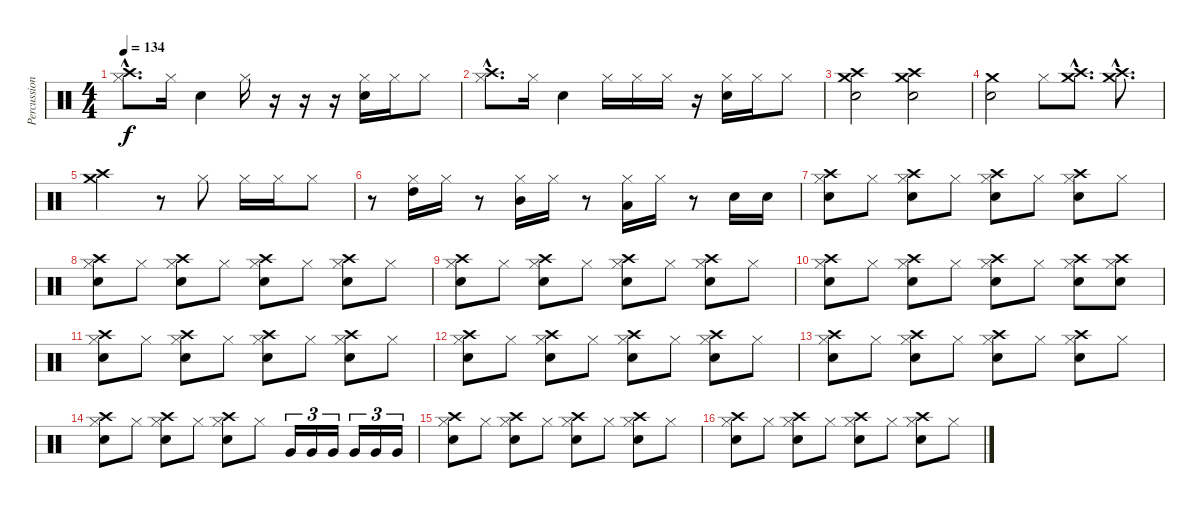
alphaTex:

\track ("Percussions" "Percussion") {instrument percussion}
\staff {score}
\articulation defaults
\ts (4 4)
\tempo 134
\clef neutral
\ks c
("Crash high (hit)"{hac} "Hi-Hat (closed)"{hac}).8{d dy f} "Hi-Hat (closed)".16 "Electric Snare (hit)".4 "Hi-Hat (closed)".16 r.16 r.16 r.16 ("Hi-Hat (closed)" "Electric Snare (hit)").16 "Hi-Hat (closed)".16 "Hi-Hat (closed)".8 |
("Crash high (hit)"{hac} "Hi-Hat (closed)"{hac}).8{d} "Hi-Hat (closed)".16 "Electric Snare (hit)".4 "Hi-Hat (closed)".16 "Hi-Hat (closed)".16 "Hi-Hat (closed)".16 r.16 ("Hi-Hat (closed)" "Electric Snare (hit)").16 "Hi-Hat (closed)".16 "Hi-Hat (closed)".8 |
("Electric Snare (hit)" "Crash medium (hit)" "Crash high (hit)").2 ("Electric Snare (hit)" "Crash medium (hit)" "Crash high (hit)").2 |
("Electric Snare (hit)" "Crash medium (hit)").2 "Hi-Hat (closed)".8 ("Crash high (hit)"{hac} "Crash medium (hit)"{hac}).8{d} ("Crash high (hit)"{hac} "Crash medium (hit)"{hac}).8{d} |
("Crash high (hit)" "Crash medium (hit)").2 r.8 "Hi-Hat (closed)".8 "Hi-Hat (closed)".16 "Hi-Hat (closed)".16 "Hi-Hat (closed)".8 |
r.8 ("High Tom (hit)" "Hi-Hat (closed)").16 "Hi-Hat (closed)".16 r.8 ("Mid Tom (hit)" "Hi-Hat (closed)").16 "Hi-Hat (closed)".16 r.8 ("Low Tom (hit)" "Hi-Hat (closed)").16 "Hi-Hat (closed)".16 r.8 "Snare (hit) 2".16 "Snare (hit) 2".16 |
("Snare (hit) 2" "Hi-Hat (closed)" "Crash high (hit)").8 "Hi-Hat (closed)".8 ("Snare (hit) 2" "Hi-Hat (closed)" "Crash high (hit)").8 "Hi-Hat (closed)".8 ("Snare (hit) 2" "Hi-Hat (closed)" "Crash high (hit)").8 "Hi-Hat (closed)".8 ("Snare (hit) 2" "Hi-Hat (closed)" "Crash high (hit)").8 "Hi-Hat (closed)".8 |
("Snare (hit) 2" "Hi-Hat (closed)" "Crash high (hit)").8 "Hi-Hat (closed)".8 ("Snare (hit) 2" "Hi-Hat (closed)" "Crash high (hit)").8 "Hi-Hat (closed)".8 ("Snare (hit) 2" "Hi-Hat (closed)" "Crash high (hit)").8 "Hi-Hat (closed)".8 ("Snare (hit) 2" "Hi-Hat (closed)" "Crash high (hit)").8 "Hi-Hat (closed)".8 |
("Snare (hit) 2" "Hi-Hat (closed)" "Crash high (hit)").8 "Hi-Hat (closed)".8 ("Snare (hit) 2" "Hi-Hat (closed)" "Crash high (hit)").8 "Hi-Hat (closed)".8 ("Snare (hit) 2" "Hi-Hat (closed)" "Crash high (hit)").8 "Hi-Hat (closed)".8 ("Snare (hit) 2" "Hi-Hat (closed)" "Crash high (hit)").8 "Hi-Hat (closed)".8 |
("Snare (hit) 2" "Hi-Hat (closed)" "Crash high (hit)").8 "Hi-Hat (closed)".8 ("Snare (hit) 2" "Hi-Hat (closed)" "Crash high (hit)").8 "Hi-Hat (closed)".8 ("Snare (hit) 2" "Hi-Hat (closed)" "Crash high (hit)").8 "Hi-Hat (closed)".8 ("Snare (hit) 2" "Hi-Hat (closed)" "Crash high (hit)").8 ("Snare (hit) 2" "Hi-Hat (closed)" "Crash high (hit)").8 |
("Snare (hit) 2" "Hi-Hat (closed)" "Crash high (hit)").8 "Hi-Hat (closed)".8 ("Snare (hit) 2" "Hi-Hat (closed)" "Crash high (hit)").8 "Hi-Hat (closed)".8 ("Snare (hit) 2" "Hi-Hat (closed)" "Crash high (hit)").8 "Hi-Hat (closed)".8 ("Snare (hit) 2" "Hi-Hat (closed)" "Crash high (hit)").8 "Hi-Hat (closed)".8 |
("Snare (hit) 2" "Hi-Hat (closed)" "Crash high (hit)").8 "Hi-Hat (closed)".8 ("Snare (hit) 2" "Hi-Hat (closed)" "Crash high (hit)").8 "Hi-Hat (closed)".8 ("Snare (hit) 2" "Hi-Hat (closed)" "Crash high (hit)").8 "Hi-Hat (closed)".8 ("Snare (hit) 2" "Hi-Hat (closed)" "Crash high (hit)").8 "Hi-Hat (closed)".8 |
("Snare (hit) 2" "Hi-Hat (closed)" "Crash high (hit)").8 "Hi-Hat (closed)".8 ("Snare (hit) 2" "Hi-Hat (closed)" "Crash high (hit)").8 "Hi-Hat (closed)".8 ("Snare (hit) 2" "Hi-Hat (closed)" "Crash high (hit)").8 "Hi-Hat (closed)".8 ("Snare (hit) 2" "Hi-Hat (closed)" "Crash high (hit)").8 "Hi-Hat (closed)".8 |
("Snare (hit) 2" "Hi-Hat (closed)" "Crash high (hit)").8 "Hi-Hat (closed)".8 ("Snare (hit) 2" "Hi-Hat (closed)" "Crash high (hit)").8 "Hi-Hat (closed)".8 ("Snare (hit) 2" "Hi-Hat (closed)" "Crash high (hit)").8 "Hi-Hat (closed)".8 "Very Low Tom (hit)".16{tu (3 2)} "Very Low Tom (hit)".16{tu (3 2)} "Very Low Tom (hit)".16{tu (3 2)} "Very Low Tom (hit)".16{tu (3 2)} "Very Low Tom (hit)".16{tu (3 2)} "Very Low Tom (hit)".16{tu (3 2)} |
("Snare (hit) 2" "Hi-Hat (closed)" "Crash high (hit)").8 "Hi-Hat (closed)".8 ("Snare (hit) 2" "Hi-Hat (closed)" "Crash high (hit)").8 "Hi-Hat (closed)".8 ("Snare (hit) 2" "Hi-Hat (closed)" "Crash high (hit)").8 "Hi-Hat (closed)".8 ("Snare (hit) 2" "Hi-Hat (closed)" "Crash high (hit)").8 "Hi-Hat (closed)".8 |
("Snare (hit) 2" "Hi-Hat (closed)" "Crash high (hit)").8 "Hi-Hat (closed)".8 ("Snare (hit) 2" "Hi-Hat (closed)" "Crash high (hit)").8 "Hi-Hat (closed)".8 ("Snare (hit) 2" "Hi-Hat (closed)" "Crash high (hit)").8 "Hi-Hat (closed)".8 ("Snare (hit) 2" "Hi-Hat (closed)" "Crash high (hit)").8 "Hi-Hat (closed)".8
